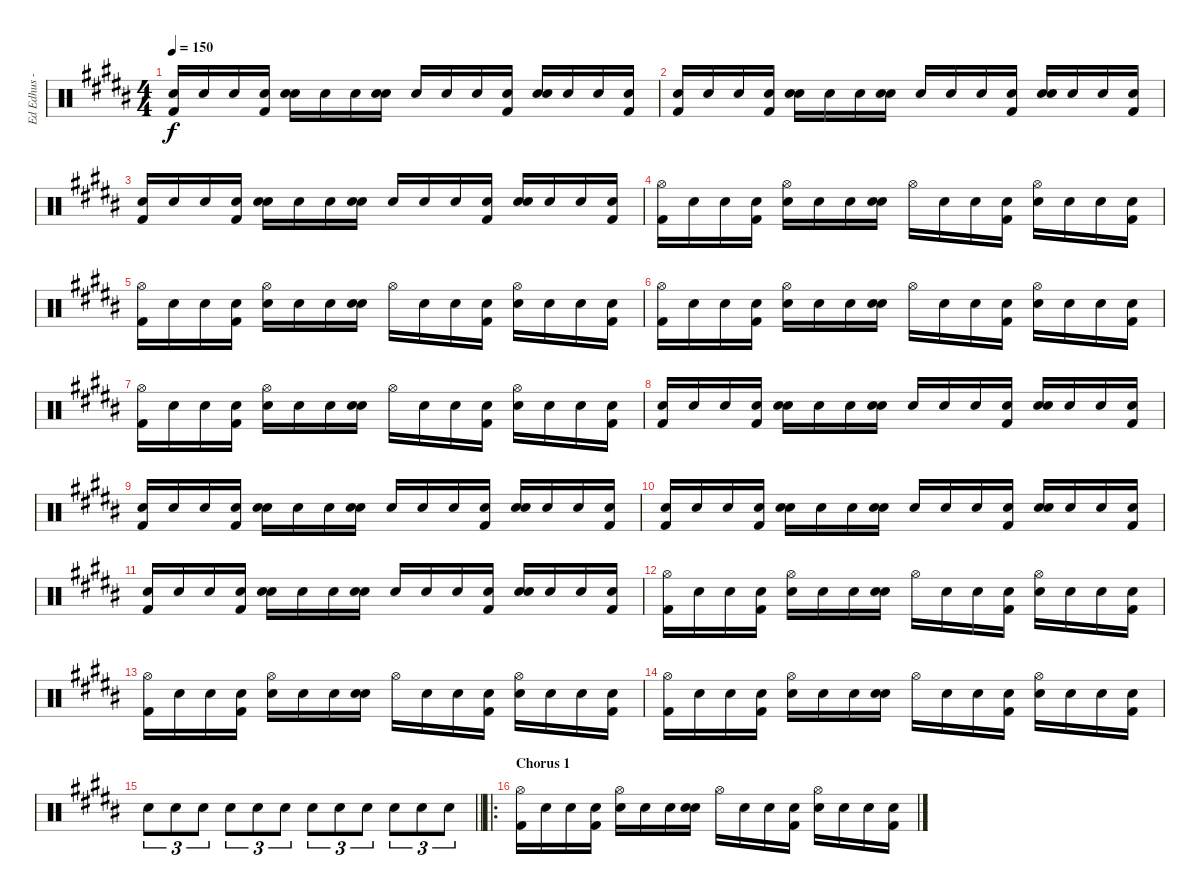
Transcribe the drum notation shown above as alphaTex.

\track ("Ed Edhus - Drums" "Ed Edhus -") {instrument percussion bank 127}
\staff {score}
\articulation defaults
\ts (4 4)
\tempo 150
\clef neutral
\ks g#minor
("Snare (hit)" "Kick (hit) 2").16{dy f} "Snare (hit)".16 "Snare (hit)".16 ("Snare (hit)" "Kick (hit) 2").16 ("Snare (hit)" "Snare (hit) 2").16 "Snare (hit)".16 "Snare (hit)".16 ("Snare (hit)" "Snare (hit) 2").16 "Snare (hit)".16 "Snare (hit)".16 "Snare (hit)".16 ("Snare (hit)" "Kick (hit) 2").16 ("Snare (hit)" "Snare (hit) 2").16 "Snare (hit)".16 "Snare (hit)".16 ("Snare (hit)" "Kick (hit) 2").16 |
("Snare (hit)" "Kick (hit) 2").16 "Snare (hit)".16 "Snare (hit)".16 ("Snare (hit)" "Kick (hit) 2").16 ("Snare (hit)" "Snare (hit) 2").16 "Snare (hit)".16 "Snare (hit)".16 ("Snare (hit)" "Snare (hit) 2").16 "Snare (hit)".16 "Snare (hit)".16 "Snare (hit)".16 ("Snare (hit)" "Kick (hit) 2").16 ("Snare (hit)" "Snare (hit) 2").16 "Snare (hit)".16 "Snare (hit)".16 ("Snare (hit)" "Kick (hit) 2").16 |
("Snare (hit)" "Kick (hit) 2").16 "Snare (hit)".16 "Snare (hit)".16 ("Snare (hit)" "Kick (hit) 2").16 ("Snare (hit)" "Snare (hit) 2").16 "Snare (hit)".16 "Snare (hit)".16 ("Snare (hit)" "Snare (hit) 2").16 "Snare (hit)".16 "Snare (hit)".16 "Snare (hit)".16 ("Snare (hit)" "Kick (hit) 2").16 ("Snare (hit)" "Snare (hit) 2").16 "Snare (hit)".16 "Snare (hit)".16 ("Snare (hit)" "Kick (hit) 2").16 |
("Hi-Hat (open)" "Kick (hit) 2").16 "Snare (hit)".16 "Snare (hit)".16 ("Snare (hit)" "Kick (hit) 2").16 ("Hi-Hat (open)" "Snare (hit) 2").16 "Snare (hit)".16 "Snare (hit)".16 ("Snare (hit)" "Snare (hit) 2").16 "Hi-Hat (open)".16 "Snare (hit)".16 "Snare (hit)".16 ("Snare (hit)" "Kick (hit) 2").16 ("Hi-Hat (open)" "Snare (hit) 2").16 "Snare (hit)".16 "Snare (hit)".16 ("Snare (hit)" "Kick (hit) 2").16 |
("Hi-Hat (open)" "Kick (hit) 2").16 "Snare (hit)".16 "Snare (hit)".16 ("Snare (hit)" "Kick (hit) 2").16 ("Hi-Hat (open)" "Snare (hit) 2").16 "Snare (hit)".16 "Snare (hit)".16 ("Snare (hit)" "Snare (hit) 2").16 "Hi-Hat (open)".16 "Snare (hit)".16 "Snare (hit)".16 ("Snare (hit)" "Kick (hit) 2").16 ("Hi-Hat (open)" "Snare (hit) 2").16 "Snare (hit)".16 "Snare (hit)".16 ("Snare (hit)" "Kick (hit) 2").16 |
("Hi-Hat (open)" "Kick (hit) 2").16 "Snare (hit)".16 "Snare (hit)".16 ("Snare (hit)" "Kick (hit) 2").16 ("Hi-Hat (open)" "Snare (hit) 2").16 "Snare (hit)".16 "Snare (hit)".16 ("Snare (hit)" "Snare (hit) 2").16 "Hi-Hat (open)".16 "Snare (hit)".16 "Snare (hit)".16 ("Snare (hit)" "Kick (hit) 2").16 ("Hi-Hat (open)" "Snare (hit) 2").16 "Snare (hit)".16 "Snare (hit)".16 ("Snare (hit)" "Kick (hit) 2").16 |
("Hi-Hat (open)" "Kick (hit) 2").16 "Snare (hit)".16 "Snare (hit)".16 ("Snare (hit)" "Kick (hit) 2").16 ("Hi-Hat (open)" "Snare (hit) 2").16 "Snare (hit)".16 "Snare (hit)".16 ("Snare (hit)" "Snare (hit) 2").16 "Hi-Hat (open)".16 "Snare (hit)".16 "Snare (hit)".16 ("Snare (hit)" "Kick (hit) 2").16 ("Hi-Hat (open)" "Snare (hit) 2").16 "Snare (hit)".16 "Snare (hit)".16 ("Snare (hit)" "Kick (hit) 2").16 |
("Snare (hit)" "Kick (hit) 2").16 "Snare (hit)".16 "Snare (hit)".16 ("Snare (hit)" "Kick (hit) 2").16 ("Snare (hit)" "Snare (hit) 2").16 "Snare (hit)".16 "Snare (hit)".16 ("Snare (hit)" "Snare (hit) 2").16 "Snare (hit)".16 "Snare (hit)".16 "Snare (hit)".16 ("Snare (hit)" "Kick (hit) 2").16 ("Snare (hit)" "Snare (hit) 2").16 "Snare (hit)".16 "Snare (hit)".16 ("Snare (hit)" "Kick (hit) 2").16 |
("Snare (hit)" "Kick (hit) 2").16 "Snare (hit)".16 "Snare (hit)".16 ("Snare (hit)" "Kick (hit) 2").16 ("Snare (hit)" "Snare (hit) 2").16 "Snare (hit)".16 "Snare (hit)".16 ("Snare (hit)" "Snare (hit) 2").16 "Snare (hit)".16 "Snare (hit)".16 "Snare (hit)".16 ("Snare (hit)" "Kick (hit) 2").16 ("Snare (hit)" "Snare (hit) 2").16 "Snare (hit)".16 "Snare (hit)".16 ("Snare (hit)" "Kick (hit) 2").16 |
("Snare (hit)" "Kick (hit) 2").16 "Snare (hit)".16 "Snare (hit)".16 ("Snare (hit)" "Kick (hit) 2").16 ("Snare (hit)" "Snare (hit) 2").16 "Snare (hit)".16 "Snare (hit)".16 ("Snare (hit)" "Snare (hit) 2").16 "Snare (hit)".16 "Snare (hit)".16 "Snare (hit)".16 ("Snare (hit)" "Kick (hit) 2").16 ("Snare (hit)" "Snare (hit) 2").16 "Snare (hit)".16 "Snare (hit)".16 ("Snare (hit)" "Kick (hit) 2").16 |
("Snare (hit)" "Kick (hit) 2").16 "Snare (hit)".16 "Snare (hit)".16 ("Snare (hit)" "Kick (hit) 2").16 ("Snare (hit)" "Snare (hit) 2").16 "Snare (hit)".16 "Snare (hit)".16 ("Snare (hit)" "Snare (hit) 2").16 "Snare (hit)".16 "Snare (hit)".16 "Snare (hit)".16 ("Snare (hit)" "Kick (hit) 2").16 ("Snare (hit)" "Snare (hit) 2").16 "Snare (hit)".16 "Snare (hit)".16 ("Snare (hit)" "Kick (hit) 2").16 |
("Hi-Hat (open)" "Kick (hit) 2").16 "Snare (hit)".16 "Snare (hit)".16 ("Snare (hit)" "Kick (hit) 2").16 ("Hi-Hat (open)" "Snare (hit) 2").16 "Snare (hit)".16 "Snare (hit)".16 ("Snare (hit)" "Snare (hit) 2").16 "Hi-Hat (open)".16 "Snare (hit)".16 "Snare (hit)".16 ("Snare (hit)" "Kick (hit) 2").16 ("Hi-Hat (open)" "Snare (hit) 2").16 "Snare (hit)".16 "Snare (hit)".16 ("Snare (hit)" "Kick (hit) 2").16 |
("Hi-Hat (open)" "Kick (hit) 2").16 "Snare (hit)".16 "Snare (hit)".16 ("Snare (hit)" "Kick (hit) 2").16 ("Hi-Hat (open)" "Snare (hit) 2").16 "Snare (hit)".16 "Snare (hit)".16 ("Snare (hit)" "Snare (hit) 2").16 "Hi-Hat (open)".16 "Snare (hit)".16 "Snare (hit)".16 ("Snare (hit)" "Kick (hit) 2").16 ("Hi-Hat (open)" "Snare (hit) 2").16 "Snare (hit)".16 "Snare (hit)".16 ("Snare (hit)" "Kick (hit) 2").16 |
("Hi-Hat (open)" "Kick (hit) 2").16 "Snare (hit)".16 "Snare (hit)".16 ("Snare (hit)" "Kick (hit) 2").16 ("Hi-Hat (open)" "Snare (hit) 2").16 "Snare (hit)".16 "Snare (hit)".16 ("Snare (hit)" "Snare (hit) 2").16 "Hi-Hat (open)".16 "Snare (hit)".16 "Snare (hit)".16 ("Snare (hit)" "Kick (hit) 2").16 ("Hi-Hat (open)" "Snare (hit) 2").16 "Snare (hit)".16 "Snare (hit)".16 ("Snare (hit)" "Kick (hit) 2").16 |
\barLineRight lightlight "Snare (hit) 2".8{tu (3 2)} "Snare (hit) 2".8{tu (3 2)} "Snare (hit) 2".8{tu (3 2)} "Snare (hit) 2".8{tu (3 2)} "Snare (hit) 2".8{tu (3 2)} "Snare (hit) 2".8{tu (3 2)} "Snare (hit) 2".8{tu (3 2)} "Snare (hit) 2".8{tu (3 2)} "Snare (hit) 2".8{tu (3 2)} "Snare (hit) 2".8{tu (3 2)} "Snare (hit) 2".8{tu (3 2)} "Snare (hit) 2".8{tu (3 2)}
|
\ro
\section ("" "Chorus 1")
("Hi-Hat (open)" "Kick (hit) 2").16 "Snare (hit)".16 "Snare (hit)".16 ("Snare (hit)" "Kick (hit) 2").16 ("Hi-Hat (open)" "Snare (hit) 2").16 "Snare (hit)".16 "Snare (hit)".16 ("Snare (hit)" "Snare (hit) 2").16 "Hi-Hat (open)".16 "Snare (hit)".16 "Snare (hit)".16 ("Snare (hit)" "Kick (hit) 2").16 ("Hi-Hat (open)" "Snare (hit) 2").16 "Snare (hit)".16 "Snare (hit)".16 ("Snare (hit)" "Kick (hit) 2").16
